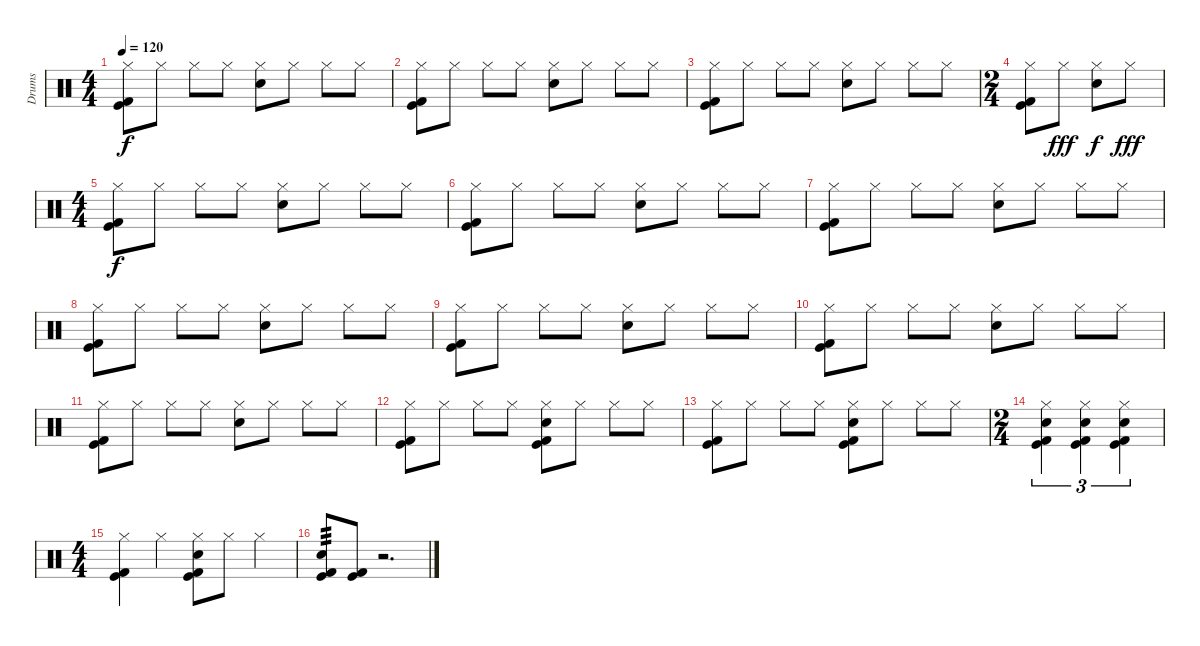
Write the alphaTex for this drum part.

\track ("Drums" "Drums") {instrument percussion}
\staff {score}
\articulation defaults
\ts (4 4)
\tempo 120
\clef neutral
\ks c
("Hi-Hat (closed)" "Kick (hit) 2" "Kick (hit)").8{dy f} "Hi-Hat (closed)".8 "Hi-Hat (closed)".8 "Hi-Hat (closed)".8 ("Hi-Hat (closed)" "Snare (hit) 2").8 "Hi-Hat (closed)".8 "Hi-Hat (closed)".8 "Hi-Hat (closed)".8 |
("Hi-Hat (closed)" "Kick (hit) 2" "Kick (hit)").8 "Hi-Hat (closed)".8 "Hi-Hat (closed)".8 "Hi-Hat (closed)".8 ("Hi-Hat (closed)" "Snare (hit) 2").8 "Hi-Hat (closed)".8 "Hi-Hat (closed)".8 "Hi-Hat (closed)".8 |
("Hi-Hat (closed)" "Kick (hit) 2" "Kick (hit)").8 "Hi-Hat (closed)".8 "Hi-Hat (closed)".8 "Hi-Hat (closed)".8 ("Hi-Hat (closed)" "Snare (hit) 2").8 "Hi-Hat (closed)".8 "Hi-Hat (closed)".8 "Hi-Hat (closed)".8 |
\ts (2 4)
("Hi-Hat (closed)" "Kick (hit) 2" "Kick (hit)").8 "Hi-Hat (closed)".8{dy fff} ("Hi-Hat (closed)" "Snare (hit) 2").8{dy f} "Hi-Hat (closed)".8{dy fff} |
\ts (4 4)
("Hi-Hat (closed)" "Kick (hit) 2" "Kick (hit)").8{dy f} "Hi-Hat (closed)".8 "Hi-Hat (closed)".8 "Hi-Hat (closed)".8 ("Hi-Hat (closed)" "Snare (hit) 2").8 "Hi-Hat (closed)".8 "Hi-Hat (closed)".8 "Hi-Hat (closed)".8 |
("Hi-Hat (closed)" "Kick (hit) 2" "Kick (hit)").8 "Hi-Hat (closed)".8 "Hi-Hat (closed)".8 "Hi-Hat (closed)".8 ("Hi-Hat (closed)" "Snare (hit) 2").8 "Hi-Hat (closed)".8 "Hi-Hat (closed)".8 "Hi-Hat (closed)".8 |
("Hi-Hat (closed)" "Kick (hit) 2" "Kick (hit)").8 "Hi-Hat (closed)".8 "Hi-Hat (closed)".8 "Hi-Hat (closed)".8 ("Hi-Hat (closed)" "Snare (hit) 2").8 "Hi-Hat (closed)".8 "Hi-Hat (closed)".8 "Hi-Hat (closed)".8 |
("Hi-Hat (closed)" "Kick (hit) 2" "Kick (hit)").8 "Hi-Hat (closed)".8 "Hi-Hat (closed)".8 "Hi-Hat (closed)".8 ("Hi-Hat (closed)" "Snare (hit) 2").8 "Hi-Hat (closed)".8 "Hi-Hat (closed)".8 "Hi-Hat (closed)".8 |
("Hi-Hat (closed)" "Kick (hit) 2" "Kick (hit)").8 "Hi-Hat (closed)".8 "Hi-Hat (closed)".8 "Hi-Hat (closed)".8 ("Hi-Hat (closed)" "Snare (hit) 2").8 "Hi-Hat (closed)".8 "Hi-Hat (closed)".8 "Hi-Hat (closed)".8 |
("Hi-Hat (closed)" "Kick (hit) 2" "Kick (hit)").8 "Hi-Hat (closed)".8 "Hi-Hat (closed)".8 "Hi-Hat (closed)".8 ("Hi-Hat (closed)" "Snare (hit) 2").8 "Hi-Hat (closed)".8 "Hi-Hat (closed)".8 "Hi-Hat (closed)".8 |
("Hi-Hat (closed)" "Kick (hit) 2" "Kick (hit)").8 "Hi-Hat (closed)".8 "Hi-Hat (closed)".8 "Hi-Hat (closed)".8 ("Hi-Hat (closed)" "Snare (hit) 2").8 "Hi-Hat (closed)".8 "Hi-Hat (closed)".8 "Hi-Hat (closed)".8 |
("Hi-Hat (closed)" "Kick (hit) 2" "Kick (hit)").8 "Hi-Hat (closed)".8 "Hi-Hat (closed)".8 "Hi-Hat (closed)".8 ("Hi-Hat (closed)" "Snare (hit) 2" "Kick (hit) 2" "Kick (hit)").8 "Hi-Hat (closed)".8 "Hi-Hat (closed)".8 "Hi-Hat (closed)".8 |
("Hi-Hat (closed)" "Kick (hit) 2" "Kick (hit)").8 "Hi-Hat (closed)".8 "Hi-Hat (closed)".8 "Hi-Hat (closed)".8 ("Hi-Hat (closed)" "Snare (hit) 2" "Kick (hit) 2" "Kick (hit)").8 "Hi-Hat (closed)".8 "Hi-Hat (closed)".8 "Hi-Hat (closed)".8 |
\ts (2 4)
("Hi-Hat (closed)" "Snare (hit) 2" "Kick (hit) 2" "Kick (hit)").4{tu (3 2)} ("Hi-Hat (closed)" "Snare (hit) 2" "Kick (hit) 2" "Kick (hit)").4{tu (3 2)} ("Hi-Hat (closed)" "Snare (hit) 2" "Kick (hit) 2" "Kick (hit)").4{tu (3 2)} |
\ts (4 4)
("Hi-Hat (closed)" "Kick (hit) 2" "Kick (hit)").4 "Hi-Hat (closed)".4 ("Hi-Hat (closed)" "Snare (hit) 2" "Kick (hit) 2" "Kick (hit)").8 "Hi-Hat (closed)".8 "Hi-Hat (closed)".4 |
("Snare (hit) 2" "Kick (hit) 2" "Kick (hit)").8{tp 3} ("Kick (hit) 2" "Kick (hit)").8 r.2{d}
